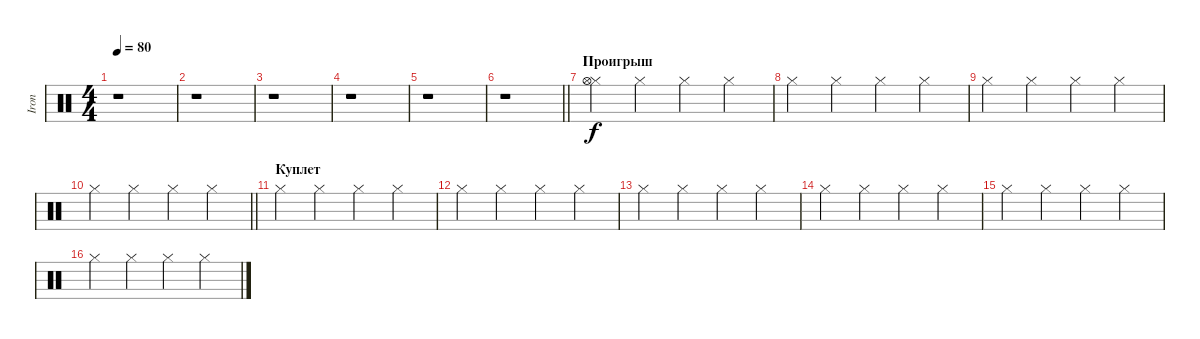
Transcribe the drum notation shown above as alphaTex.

\track ("Iron" "Iron") {instrument percussion}
\staff
\articulation defaults
\ts (4 4)
\tempo 80
\clef neutral
\ks c
r.1{dy f} |
r.1 |
r.1 |
r.1 |
r.1 |
\barLineRight lightlight
r.1 |
\section ("" "Проигрыш")
("Hi-Hat (closed)" "Hi-Hat (open)").4 "Hi-Hat (closed)".4 "Hi-Hat (closed)".4 "Hi-Hat (closed)".4 |
"Hi-Hat (closed)".4 "Hi-Hat (closed)".4 "Hi-Hat (closed)".4 "Hi-Hat (closed)".4 |
"Hi-Hat (closed)".4 "Hi-Hat (closed)".4 "Hi-Hat (closed)".4 "Hi-Hat (closed)".4 |
\barLineRight lightlight "Hi-Hat (closed)".4 "Hi-Hat (closed)".4 "Hi-Hat (closed)".4 "Hi-Hat (closed)".4
|
\section ("" "Куплет")
"Hi-Hat (closed)".4 "Hi-Hat (closed)".4 "Hi-Hat (closed)".4 "Hi-Hat (closed)".4 |
"Hi-Hat (closed)".4 "Hi-Hat (closed)".4 "Hi-Hat (closed)".4 "Hi-Hat (closed)".4 |
"Hi-Hat (closed)".4 "Hi-Hat (closed)".4 "Hi-Hat (closed)".4 "Hi-Hat (closed)".4 |
"Hi-Hat (closed)".4 "Hi-Hat (closed)".4 "Hi-Hat (closed)".4 "Hi-Hat (closed)".4 |
"Hi-Hat (closed)".4 "Hi-Hat (closed)".4 "Hi-Hat (closed)".4 "Hi-Hat (closed)".4 |
"Hi-Hat (closed)".4 "Hi-Hat (closed)".4 "Hi-Hat (closed)".4 "Hi-Hat (closed)".4
